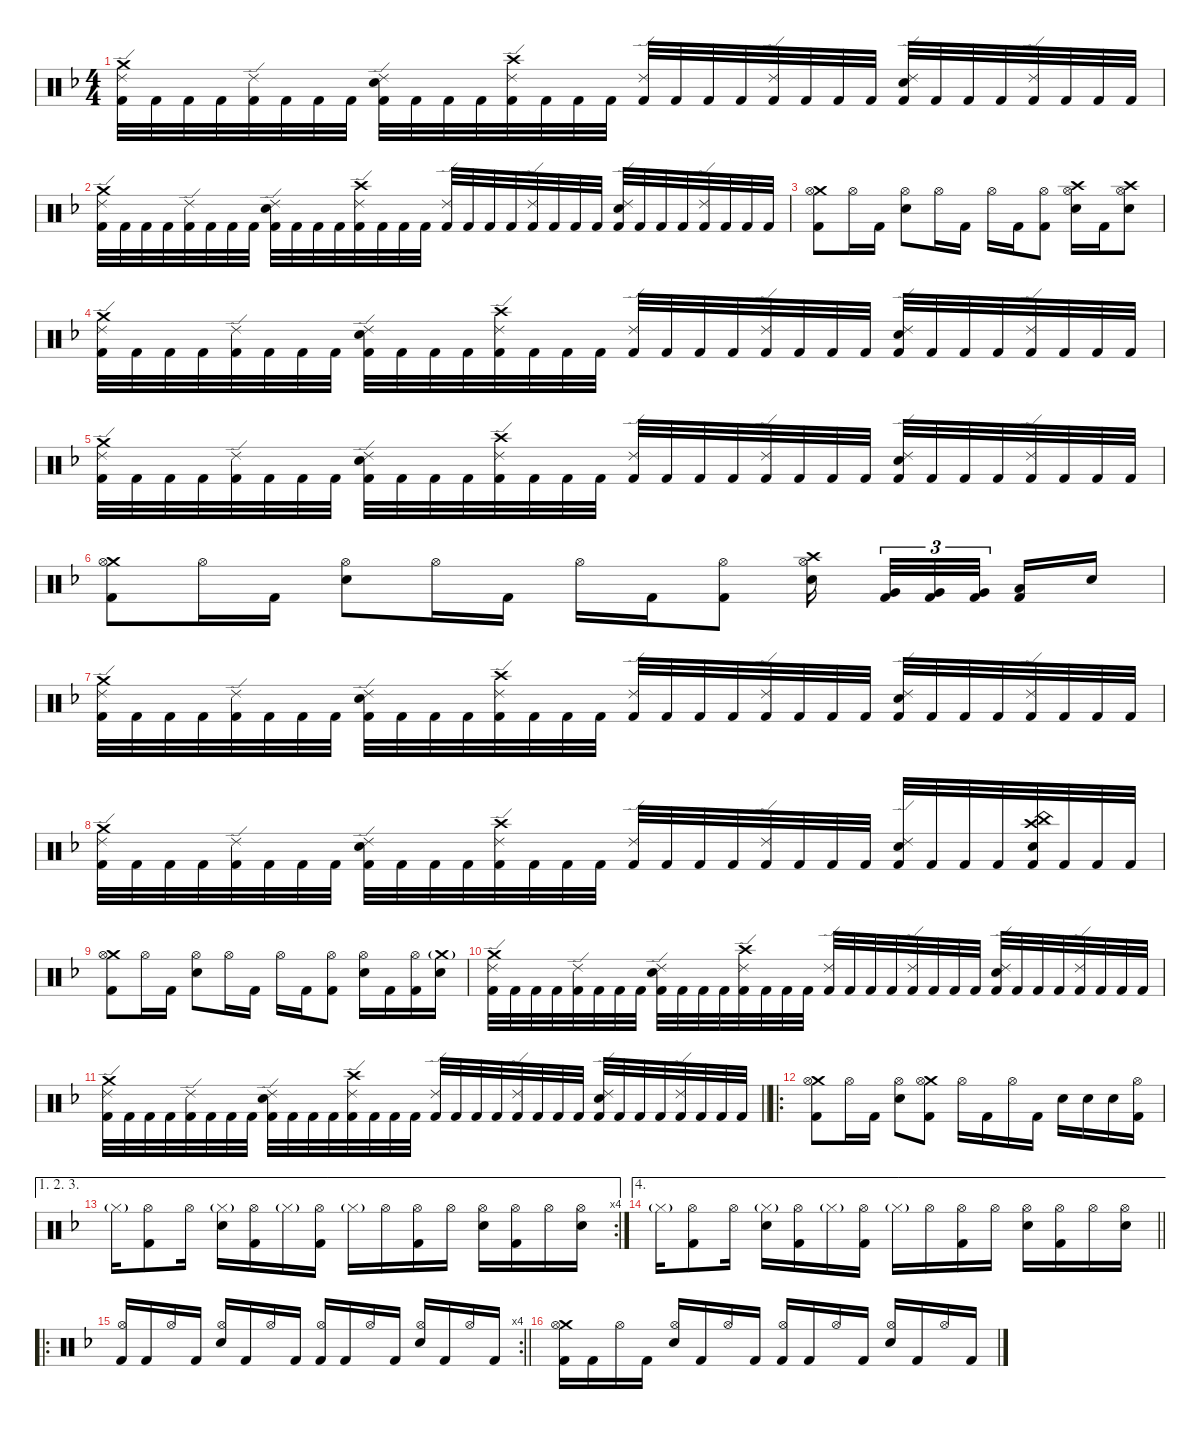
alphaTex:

\defaultSystemsLayout 4
\hideDynamics
\bracketExtendMode nobrackets
\singleTrackTrackNamePolicy hidden
\multiTrackTrackNamePolicy hidden
\otherSystemsTrackNameOrientation horizontal
\track ("Martin Lopez - Drums" "drm.") {defaultSystemsLayout 4 instrument percussion}
\staff {score}
\articulation defaults
\ts (4 4)
\tempo (84 hide)
\clef neutral
\ks dminor
("Crash medium (hit)"{acc forcenatural} "Ride (edge) 2"{acc forcenatural} "Kick (hit) 2"{acc forcenatural}).32{dy f beam Down} "Kick (hit) 2"{acc forcenatural}.32{beam Down} "Kick (hit) 2"{acc forcenatural}.32{beam Down} "Kick (hit) 2"{acc forcenatural}.32{beam Down} ("Ride (edge) 2"{acc forcenatural} "Kick (hit) 2"{acc forcenatural}).32{beam Down} "Kick (hit) 2"{acc forcenatural}.32{beam Down} "Kick (hit) 2"{acc forcenatural}.32{beam Down} "Kick (hit) 2"{acc forcenatural}.32{beam Down} ("Ride (edge) 2"{acc forcenatural} "Snare (hit) 2"{acc forcenatural} "Kick (hit) 2"{acc forcenatural}).32{beam Down} "Kick (hit) 2"{acc forcenatural}.32{beam Down} "Kick (hit) 2"{acc forcenatural}.32{beam Down} "Kick (hit) 2"{acc forcenatural}.32{beam Down} ("Crash high (hit)"{acc forcenatural} "Ride (edge) 2"{acc forcenatural} "Kick (hit) 2"{acc forcenatural}).32{beam Down} "Kick (hit) 2"{acc forcenatural}.32{beam Down} "Kick (hit) 2"{acc forcenatural}.32{beam Down} "Kick (hit) 2"{acc forcenatural}.32{beam Down} ("Ride (edge) 2"{acc forcenatural} "Kick (hit) 2"{acc forcenatural}).32{beam Up} "Kick (hit) 2"{acc forcenatural}.32{beam Up} "Kick (hit) 2"{acc forcenatural}.32{beam Up} "Kick (hit) 2"{acc forcenatural}.32{beam Up} ("Ride (edge) 2"{acc forcenatural} "Kick (hit) 2"{acc forcenatural}).32{beam Up} "Kick (hit) 2"{acc forcenatural}.32{beam Up} "Kick (hit) 2"{acc forcenatural}.32{beam Up} "Kick (hit) 2"{acc forcenatural}.32{beam Up} ("Ride (edge) 2"{acc forcenatural} "Snare (hit) 2"{acc forcenatural} "Kick (hit) 2"{acc forcenatural}).32{beam Up} "Kick (hit) 2"{acc forcenatural}.32{beam Up} "Kick (hit) 2"{acc forcenatural}.32{beam Up} "Kick (hit) 2"{acc forcenatural}.32{beam Up} ("Ride (edge) 2"{acc forcenatural} "Kick (hit) 2"{acc forcenatural}).32{beam Up} "Kick (hit) 2"{acc forcenatural}.32{beam Up} "Kick (hit) 2"{acc forcenatural}.32{beam Up} "Kick (hit) 2"{acc forcenatural}.32{beam Up} |
\tempo (85 hide)
("Crash medium (hit)"{acc forcenatural} "Ride (edge) 2"{acc forcenatural} "Kick (hit) 2"{acc forcenatural}).32{beam Down} "Kick (hit) 2"{acc forcenatural}.32{beam Down} "Kick (hit) 2"{acc forcenatural}.32{beam Down} "Kick (hit) 2"{acc forcenatural}.32{beam Down} ("Ride (edge) 2"{acc forcenatural} "Kick (hit) 2"{acc forcenatural}).32{beam Down} "Kick (hit) 2"{acc forcenatural}.32{beam Down} "Kick (hit) 2"{acc forcenatural}.32{beam Down} "Kick (hit) 2"{acc forcenatural}.32{beam Down} ("Ride (edge) 2"{acc forcenatural} "Snare (hit) 2"{acc forcenatural} "Kick (hit) 2"{acc forcenatural}).32{beam Down} "Kick (hit) 2"{acc forcenatural}.32{beam Down} "Kick (hit) 2"{acc forcenatural}.32{beam Down} "Kick (hit) 2"{acc forcenatural}.32{beam Down} ("Crash high (hit)"{acc forcenatural} "Ride (edge) 2"{acc forcenatural} "Kick (hit) 2"{acc forcenatural}).32{beam Down} "Kick (hit) 2"{acc forcenatural}.32{beam Down} "Kick (hit) 2"{acc forcenatural}.32{beam Down} "Kick (hit) 2"{acc forcenatural}.32{beam Down} ("Ride (edge) 2"{acc forcenatural} "Kick (hit) 2"{acc forcenatural}).32{beam Up} "Kick (hit) 2"{acc forcenatural}.32{beam Up} "Kick (hit) 2"{acc forcenatural}.32{beam Up} "Kick (hit) 2"{acc forcenatural}.32{beam Up} ("Ride (edge) 2"{acc forcenatural} "Kick (hit) 2"{acc forcenatural}).32{beam Up} "Kick (hit) 2"{acc forcenatural}.32{beam Up} "Kick (hit) 2"{acc forcenatural}.32{beam Up} "Kick (hit) 2"{acc forcenatural}.32{beam Up} ("Ride (edge) 2"{acc forcenatural} "Snare (hit) 2"{acc forcenatural} "Kick (hit) 2"{acc forcenatural}).32{beam Up} "Kick (hit) 2"{acc forcenatural}.32{beam Up} "Kick (hit) 2"{acc forcenatural}.32{beam Up} "Kick (hit) 2"{acc forcenatural}.32{beam Up} ("Ride (edge) 2"{acc forcenatural} "Kick (hit) 2"{acc forcenatural}).32{beam Up} "Kick (hit) 2"{acc forcenatural}.32{beam Up} "Kick (hit) 2"{acc forcenatural}.32{beam Up} "Kick (hit) 2"{acc forcenatural}.32{beam Up} |
\tempo (84 0.00625 hide)
("Crash medium (hit)"{acc forcenatural} "Hi-Hat (open)"{acc forcenatural} "Kick (hit) 2"{acc forcenatural}).8{beam Down} "Hi-Hat (open)"{acc forcenatural}.16{beam Down} "Kick (hit) 2"{acc forcenatural}.16{beam Down} ("Hi-Hat (open)"{acc forcenatural} "Snare (hit) 2"{acc forcenatural}).8{beam Down} "Hi-Hat (open)"{acc forcenatural}.16{beam Down} "Kick (hit) 2"{acc forcenatural}.16{beam Down} "Hi-Hat (open)"{acc forcenatural}.16{beam Down} "Kick (hit) 2"{acc forcenatural}.16{beam Down} ("Hi-Hat (open)"{acc forcenatural} "Kick (hit) 2"{acc forcenatural}).8{beam Down} ("Crash high (hit)"{acc forcenatural} "Hi-Hat (open)"{acc forcenatural} "Snare (hit) 2"{acc forcenatural}).16{beam Down} "Kick (hit) 2"{acc forcenatural}.16{beam Down} ("Crash high (hit)"{acc forcenatural} "Hi-Hat (open)"{acc forcenatural} "Snare (hit) 2"{acc forcenatural}).8{beam Down} |
\tempo (85 hide)
\tempo (84 0.99375 hide)
("Crash medium (hit)"{acc forcenatural} "Ride (edge) 2"{acc forcenatural} "Kick (hit) 2"{acc forcenatural}).32{beam Down} "Kick (hit) 2"{acc forcenatural}.32{beam Down} "Kick (hit) 2"{acc forcenatural}.32{beam Down} "Kick (hit) 2"{acc forcenatural}.32{beam Down} ("Ride (edge) 2"{acc forcenatural} "Kick (hit) 2"{acc forcenatural}).32{beam Down} "Kick (hit) 2"{acc forcenatural}.32{beam Down} "Kick (hit) 2"{acc forcenatural}.32{beam Down} "Kick (hit) 2"{acc forcenatural}.32{beam Down} ("Ride (edge) 2"{acc forcenatural} "Snare (hit) 2"{acc forcenatural} "Kick (hit) 2"{acc forcenatural}).32{beam Down} "Kick (hit) 2"{acc forcenatural}.32{beam Down} "Kick (hit) 2"{acc forcenatural}.32{beam Down} "Kick (hit) 2"{acc forcenatural}.32{beam Down} ("Crash high (hit)"{acc forcenatural} "Ride (edge) 2"{acc forcenatural} "Kick (hit) 2"{acc forcenatural}).32{beam Down} "Kick (hit) 2"{acc forcenatural}.32{beam Down} "Kick (hit) 2"{acc forcenatural}.32{beam Down} "Kick (hit) 2"{acc forcenatural}.32{beam Down} ("Ride (edge) 2"{acc forcenatural} "Kick (hit) 2"{acc forcenatural}).32{beam Up} "Kick (hit) 2"{acc forcenatural}.32{beam Up} "Kick (hit) 2"{acc forcenatural}.32{beam Up} "Kick (hit) 2"{acc forcenatural}.32{beam Up} ("Ride (edge) 2"{acc forcenatural} "Kick (hit) 2"{acc forcenatural}).32{beam Up} "Kick (hit) 2"{acc forcenatural}.32{beam Up} "Kick (hit) 2"{acc forcenatural}.32{beam Up} "Kick (hit) 2"{acc forcenatural}.32{beam Up} ("Ride (edge) 2"{acc forcenatural} "Snare (hit) 2"{acc forcenatural} "Kick (hit) 2"{acc forcenatural}).32{beam Up} "Kick (hit) 2"{acc forcenatural}.32{beam Up} "Kick (hit) 2"{acc forcenatural}.32{beam Up} "Kick (hit) 2"{acc forcenatural}.32{beam Up} ("Ride (edge) 2"{acc forcenatural} "Kick (hit) 2"{acc forcenatural}).32{beam Up} "Kick (hit) 2"{acc forcenatural}.32{beam Up} "Kick (hit) 2"{acc forcenatural}.32{beam Up} "Kick (hit) 2"{acc forcenatural}.32{beam Up} |
("Crash medium (hit)"{acc forcenatural} "Ride (edge) 2"{acc forcenatural} "Kick (hit) 2"{acc forcenatural}).32{beam Down} "Kick (hit) 2"{acc forcenatural}.32{beam Down} "Kick (hit) 2"{acc forcenatural}.32{beam Down} "Kick (hit) 2"{acc forcenatural}.32{beam Down} ("Ride (edge) 2"{acc forcenatural} "Kick (hit) 2"{acc forcenatural}).32{beam Down} "Kick (hit) 2"{acc forcenatural}.32{beam Down} "Kick (hit) 2"{acc forcenatural}.32{beam Down} "Kick (hit) 2"{acc forcenatural}.32{beam Down} ("Ride (edge) 2"{acc forcenatural} "Snare (hit) 2"{acc forcenatural} "Kick (hit) 2"{acc forcenatural}).32{beam Down} "Kick (hit) 2"{acc forcenatural}.32{beam Down} "Kick (hit) 2"{acc forcenatural}.32{beam Down} "Kick (hit) 2"{acc forcenatural}.32{beam Down} ("Crash high (hit)"{acc forcenatural} "Ride (edge) 2"{acc forcenatural} "Kick (hit) 2"{acc forcenatural}).32{beam Down} "Kick (hit) 2"{acc forcenatural}.32{beam Down} "Kick (hit) 2"{acc forcenatural}.32{beam Down} "Kick (hit) 2"{acc forcenatural}.32{beam Down} ("Ride (edge) 2"{acc forcenatural} "Kick (hit) 2"{acc forcenatural}).32{beam Up} "Kick (hit) 2"{acc forcenatural}.32{beam Up} "Kick (hit) 2"{acc forcenatural}.32{beam Up} "Kick (hit) 2"{acc forcenatural}.32{beam Up} ("Ride (edge) 2"{acc forcenatural} "Kick (hit) 2"{acc forcenatural}).32{beam Up} "Kick (hit) 2"{acc forcenatural}.32{beam Up} "Kick (hit) 2"{acc forcenatural}.32{beam Up} "Kick (hit) 2"{acc forcenatural}.32{beam Up} ("Ride (edge) 2"{acc forcenatural} "Snare (hit) 2"{acc forcenatural} "Kick (hit) 2"{acc forcenatural}).32{beam Up} "Kick (hit) 2"{acc forcenatural}.32{beam Up} "Kick (hit) 2"{acc forcenatural}.32{beam Up} "Kick (hit) 2"{acc forcenatural}.32{beam Up} ("Ride (edge) 2"{acc forcenatural} "Kick (hit) 2"{acc forcenatural}).32{beam Up} "Kick (hit) 2"{acc forcenatural}.32{beam Up} "Kick (hit) 2"{acc forcenatural}.32{beam Up} "Kick (hit) 2"{acc forcenatural}.32{beam Up} |
\tempo (85 0.00625 hide)
("Crash medium (hit)"{acc forcenatural} "Hi-Hat (open)"{acc forcenatural} "Kick (hit) 2"{acc forcenatural}).8{beam Down} "Hi-Hat (open)"{acc forcenatural}.16{beam Down} "Kick (hit) 2"{acc forcenatural}.16{beam Down} ("Hi-Hat (open)"{acc forcenatural} "Snare (hit) 2"{acc forcenatural}).8{beam Down} "Hi-Hat (open)"{acc forcenatural}.16{beam Down} "Kick (hit) 2"{acc forcenatural}.16{beam Down} "Hi-Hat (open)"{acc forcenatural}.16{beam Down} "Kick (hit) 2"{acc forcenatural}.16{beam Down} ("Hi-Hat (open)"{acc forcenatural} "Kick (hit) 2"{acc forcenatural}).8{beam Down} ("Crash high (hit)"{acc forcenatural} "Hi-Hat (open)"{acc forcenatural} "Snare (hit) 2"{acc forcenatural}).16{beam Down} ("Very Low Tom (hit)"{acc forcenatural} "Kick (hit) 2"{acc forcenatural}).32{tu (3 2) beam Up} ("Very Low Tom (hit)"{acc forcenatural} "Kick (hit) 2"{acc forcenatural}).32{tu (3 2) beam Up} ("Very Low Tom (hit)"{acc forcenatural} "Kick (hit) 2"{acc forcenatural}).32{tu (3 2) beam Up} ("Low Floor Tom (hit)"{acc forcenatural} "Kick (hit) 2"{acc forcenatural}).16{beam Up} "Snare (hit) 2"{acc forcenatural}.16{beam Up} |
\tempo (84 0.00625 hide)
("Crash medium (hit)"{acc forcenatural} "Ride (edge) 2"{acc forcenatural} "Kick (hit) 2"{acc forcenatural}).32{beam Down} "Kick (hit) 2"{acc forcenatural}.32{beam Down} "Kick (hit) 2"{acc forcenatural}.32{beam Down} "Kick (hit) 2"{acc forcenatural}.32{beam Down} ("Ride (edge) 2"{acc forcenatural} "Kick (hit) 2"{acc forcenatural}).32{beam Down} "Kick (hit) 2"{acc forcenatural}.32{beam Down} "Kick (hit) 2"{acc forcenatural}.32{beam Down} "Kick (hit) 2"{acc forcenatural}.32{beam Down} ("Ride (edge) 2"{acc forcenatural} "Snare (hit) 2"{acc forcenatural} "Kick (hit) 2"{acc forcenatural}).32{beam Down} "Kick (hit) 2"{acc forcenatural}.32{beam Down} "Kick (hit) 2"{acc forcenatural}.32{beam Down} "Kick (hit) 2"{acc forcenatural}.32{beam Down} ("Crash high (hit)"{acc forcenatural} "Ride (edge) 2"{acc forcenatural} "Kick (hit) 2"{acc forcenatural}).32{beam Down} "Kick (hit) 2"{acc forcenatural}.32{beam Down} "Kick (hit) 2"{acc forcenatural}.32{beam Down} "Kick (hit) 2"{acc forcenatural}.32{beam Down} ("Ride (edge) 2"{acc forcenatural} "Kick (hit) 2"{acc forcenatural}).32{beam Up} "Kick (hit) 2"{acc forcenatural}.32{beam Up} "Kick (hit) 2"{acc forcenatural}.32{beam Up} "Kick (hit) 2"{acc forcenatural}.32{beam Up} ("Ride (edge) 2"{acc forcenatural} "Kick (hit) 2"{acc forcenatural}).32{beam Up} "Kick (hit) 2"{acc forcenatural}.32{beam Up} "Kick (hit) 2"{acc forcenatural}.32{beam Up} "Kick (hit) 2"{acc forcenatural}.32{beam Up} ("Ride (edge) 2"{acc forcenatural} "Snare (hit) 2"{acc forcenatural} "Kick (hit) 2"{acc forcenatural}).32{beam Up} "Kick (hit) 2"{acc forcenatural}.32{beam Up} "Kick (hit) 2"{acc forcenatural}.32{beam Up} "Kick (hit) 2"{acc forcenatural}.32{beam Up} ("Ride (edge) 2"{acc forcenatural} "Kick (hit) 2"{acc forcenatural}).32{beam Up} "Kick (hit) 2"{acc forcenatural}.32{beam Up} "Kick (hit) 2"{acc forcenatural}.32{beam Up} "Kick (hit) 2"{acc forcenatural}.32{beam Up} |
\tempo (85 hide)
("Crash medium (hit)"{acc forcenatural} "Ride (edge) 2"{acc forcenatural} "Kick (hit) 2"{acc forcenatural}).32{beam Down} "Kick (hit) 2"{acc forcenatural}.32{beam Down} "Kick (hit) 2"{acc forcenatural}.32{beam Down} "Kick (hit) 2"{acc forcenatural}.32{beam Down} ("Ride (edge) 2"{acc forcenatural} "Kick (hit) 2"{acc forcenatural}).32{beam Down} "Kick (hit) 2"{acc forcenatural}.32{beam Down} "Kick (hit) 2"{acc forcenatural}.32{beam Down} "Kick (hit) 2"{acc forcenatural}.32{beam Down} ("Ride (edge) 2"{acc forcenatural} "Snare (hit) 2"{acc forcenatural} "Kick (hit) 2"{acc forcenatural}).32{beam Down} "Kick (hit) 2"{acc forcenatural}.32{beam Down} "Kick (hit) 2"{acc forcenatural}.32{beam Down} "Kick (hit) 2"{acc forcenatural}.32{beam Down} ("Crash high (hit)"{acc forcenatural} "Ride (edge) 2"{acc forcenatural} "Kick (hit) 2"{acc forcenatural}).32{beam Down} "Kick (hit) 2"{acc forcenatural}.32{beam Down} "Kick (hit) 2"{acc forcenatural}.32{beam Down} "Kick (hit) 2"{acc forcenatural}.32{beam Down} ("Ride (edge) 2"{acc forcenatural} "Kick (hit) 2"{acc forcenatural}).32{beam Up} "Kick (hit) 2"{acc forcenatural}.32{beam Up} "Kick (hit) 2"{acc forcenatural}.32{beam Up} "Kick (hit) 2"{acc forcenatural}.32{beam Up} ("Ride (edge) 2"{acc forcenatural} "Kick (hit) 2"{acc forcenatural}).32{beam Up} "Kick (hit) 2"{acc forcenatural}.32{beam Up} "Kick (hit) 2"{acc forcenatural}.32{beam Up} "Kick (hit) 2"{acc forcenatural}.32{beam Up} ("Ride (edge) 2"{acc forcenatural} "Snare (hit) 2"{acc forcenatural} "Kick (hit) 2"{acc forcenatural}).32{beam Up} "Kick (hit) 2"{acc forcenatural}.32{beam Up} "Kick (hit) 2"{acc forcenatural}.32{beam Up} "Kick (hit) 2"{acc forcenatural}.32{beam Up} ("Crash high (hit)"{acc forcenatural} "China (hit)"{acc forcenatural} "Snare (hit) 2"{acc forcenatural} "Kick (hit) 2"{acc forcenatural}).32{beam Up} "Kick (hit) 2"{acc forcenatural}.32{beam Up} "Kick (hit) 2"{acc forcenatural}.32{beam Up} "Kick (hit) 2"{acc forcenatural}.32{beam Up} |
\tempo (84 hide)
("Crash medium (hit)"{acc forcenatural} "Hi-Hat (open)"{acc forcenatural} "Kick (hit) 2"{acc forcenatural}).8{beam Down} "Hi-Hat (open)"{acc forcenatural}.16{beam Down} "Kick (hit) 2"{acc forcenatural}.16{beam Down} ("Hi-Hat (open)"{acc forcenatural} "Snare (hit) 2"{acc forcenatural}).8{beam Down} "Hi-Hat (open)"{acc forcenatural}.16{beam Down} "Kick (hit) 2"{acc forcenatural}.16{beam Down} "Hi-Hat (open)"{acc forcenatural}.16{beam Down} "Kick (hit) 2"{acc forcenatural}.16{beam Down} ("Hi-Hat (open)"{acc forcenatural} "Kick (hit) 2"{acc forcenatural}).8{beam Down} ("Hi-Hat (open)"{acc forcenatural} "Snare (hit) 2"{acc forcenatural}).16{beam Down} "Kick (hit) 2"{acc forcenatural}.16{beam Down} ("Hi-Hat (open)"{acc forcenatural} "Kick (hit) 2"{acc forcenatural}).16{beam Down} ("Crash medium (hit)"{g acc forcenatural} "Snare (hit) 2"{acc forcenatural}).16{beam Down} |
\tempo (85 hide)
("Crash medium (hit)"{acc forcenatural} "Ride (edge) 2"{acc forcenatural} "Kick (hit) 2"{acc forcenatural}).32{beam Down} "Kick (hit) 2"{acc forcenatural}.32{beam Down} "Kick (hit) 2"{acc forcenatural}.32{beam Down} "Kick (hit) 2"{acc forcenatural}.32{beam Down} ("Ride (edge) 2"{acc forcenatural} "Kick (hit) 2"{acc forcenatural}).32{beam Down} "Kick (hit) 2"{acc forcenatural}.32{beam Down} "Kick (hit) 2"{acc forcenatural}.32{beam Down} "Kick (hit) 2"{acc forcenatural}.32{beam Down} ("Ride (edge) 2"{acc forcenatural} "Snare (hit) 2"{acc forcenatural} "Kick (hit) 2"{acc forcenatural}).32{beam Down} "Kick (hit) 2"{acc forcenatural}.32{beam Down} "Kick (hit) 2"{acc forcenatural}.32{beam Down} "Kick (hit) 2"{acc forcenatural}.32{beam Down} ("Crash high (hit)"{acc forcenatural} "Ride (edge) 2"{acc forcenatural} "Kick (hit) 2"{acc forcenatural}).32{beam Down} "Kick (hit) 2"{acc forcenatural}.32{beam Down} "Kick (hit) 2"{acc forcenatural}.32{beam Down} "Kick (hit) 2"{acc forcenatural}.32{beam Down} ("Ride (edge) 2"{acc forcenatural} "Kick (hit) 2"{acc forcenatural}).32{beam Up} "Kick (hit) 2"{acc forcenatural}.32{beam Up} "Kick (hit) 2"{acc forcenatural}.32{beam Up} "Kick (hit) 2"{acc forcenatural}.32{beam Up} ("Ride (edge) 2"{acc forcenatural} "Kick (hit) 2"{acc forcenatural}).32{beam Up} "Kick (hit) 2"{acc forcenatural}.32{beam Up} "Kick (hit) 2"{acc forcenatural}.32{beam Up} "Kick (hit) 2"{acc forcenatural}.32{beam Up} ("Ride (edge) 2"{acc forcenatural} "Snare (hit) 2"{acc forcenatural} "Kick (hit) 2"{acc forcenatural}).32{beam Up} "Kick (hit) 2"{acc forcenatural}.32{beam Up} "Kick (hit) 2"{acc forcenatural}.32{beam Up} "Kick (hit) 2"{acc forcenatural}.32{beam Up} ("Ride (edge) 2"{acc forcenatural} "Kick (hit) 2"{acc forcenatural}).32{beam Up} "Kick (hit) 2"{acc forcenatural}.32{beam Up} "Kick (hit) 2"{acc forcenatural}.32{beam Up} "Kick (hit) 2"{acc forcenatural}.32{beam Up} |
\tempo (84 hide)
\barLineRight lightlight
("Crash medium (hit)"{acc forcenatural} "Ride (edge) 2"{acc forcenatural} "Kick (hit) 2"{acc forcenatural}).32{beam Down} "Kick (hit) 2"{acc forcenatural}.32{beam Down} "Kick (hit) 2"{acc forcenatural}.32{beam Down} "Kick (hit) 2"{acc forcenatural}.32{beam Down} ("Ride (edge) 2"{acc forcenatural} "Kick (hit) 2"{acc forcenatural}).32{beam Down} "Kick (hit) 2"{acc forcenatural}.32{beam Down} "Kick (hit) 2"{acc forcenatural}.32{beam Down} "Kick (hit) 2"{acc forcenatural}.32{beam Down} ("Ride (edge) 2"{acc forcenatural} "Snare (hit) 2"{acc forcenatural} "Kick (hit) 2"{acc forcenatural}).32{beam Down} "Kick (hit) 2"{acc forcenatural}.32{beam Down} "Kick (hit) 2"{acc forcenatural}.32{beam Down} "Kick (hit) 2"{acc forcenatural}.32{beam Down} ("Crash high (hit)"{acc forcenatural} "Ride (edge) 2"{acc forcenatural} "Kick (hit) 2"{acc forcenatural}).32{beam Down} "Kick (hit) 2"{acc forcenatural}.32{beam Down} "Kick (hit) 2"{acc forcenatural}.32{beam Down} "Kick (hit) 2"{acc forcenatural}.32{beam Down} ("Ride (edge) 2"{acc forcenatural} "Kick (hit) 2"{acc forcenatural}).32{beam Up} "Kick (hit) 2"{acc forcenatural}.32{beam Up} "Kick (hit) 2"{acc forcenatural}.32{beam Up} "Kick (hit) 2"{acc forcenatural}.32{beam Up} ("Ride (edge) 2"{acc forcenatural} "Kick (hit) 2"{acc forcenatural}).32{beam Up} "Kick (hit) 2"{acc forcenatural}.32{beam Up} "Kick (hit) 2"{acc forcenatural}.32{beam Up} "Kick (hit) 2"{acc forcenatural}.32{beam Up} ("Ride (edge) 2"{acc forcenatural} "Snare (hit) 2"{acc forcenatural} "Kick (hit) 2"{acc forcenatural}).32{beam Up} "Kick (hit) 2"{acc forcenatural}.32{beam Up} "Kick (hit) 2"{acc forcenatural}.32{beam Up} "Kick (hit) 2"{acc forcenatural}.32{beam Up} ("Ride (edge) 2"{acc forcenatural} "Kick (hit) 2"{acc forcenatural}).32{beam Up} "Kick (hit) 2"{acc forcenatural}.32{beam Up} "Kick (hit) 2"{acc forcenatural}.32{beam Up} "Kick (hit) 2"{acc forcenatural}.32{beam Up} |
\ro
\tempo (84 hide)
("Crash medium (hit)"{acc forcenatural} "Hi-Hat (open)"{acc forcenatural} "Kick (hit) 2"{acc forcenatural}).8{beam Down} "Hi-Hat (open)"{acc forcenatural}.16{beam Down} "Kick (hit) 2"{acc forcenatural}.16{beam Down} ("Hi-Hat (open)"{acc forcenatural} "Snare (hit) 2"{acc forcenatural}).8{beam Down} ("Crash medium (hit)"{acc forcenatural} "Hi-Hat (open)"{acc forcenatural} "Kick (hit) 2"{acc forcenatural}).8{beam Down} "Hi-Hat (open)"{acc forcenatural}.16{beam Down} "Kick (hit) 2"{acc forcenatural}.16{beam Down} "Hi-Hat (open)"{acc forcenatural}.16{beam Down} "Kick (hit) 2"{acc forcenatural}.16{beam Down} "Snare (hit) 2"{acc forcenatural}.16{beam Down} "Snare (hit) 2"{acc forcenatural}.16{beam Down} "Snare (hit) 2"{acc forcenatural}.16{beam Down} ("Hi-Hat (open)"{acc forcenatural} "Kick (hit) 2"{acc forcenatural}).16{beam Down} |
\ae (1 2 3)
\rc 4
\tempo (85 hide)
"Hi-Hat (closed)"{g acc forcenatural}.16{dy mf beam Down} ("Hi-Hat (open)"{acc forcenatural} "Kick (hit) 2"{acc forcenatural}).8{dy f beam Down} "Hi-Hat (open)"{acc forcenatural}.16{beam Down} ("Hi-Hat (closed)"{g acc forcenatural} "Snare (hit) 2"{acc forcenatural}).16{beam Down} ("Hi-Hat (open)"{acc forcenatural} "Kick (hit) 2"{acc forcenatural}).16{beam Down} "Hi-Hat (closed)"{g acc forcenatural}.16{dy mf beam Down} ("Hi-Hat (open)"{acc forcenatural} "Kick (hit) 2"{acc forcenatural}).16{dy f beam Down} "Hi-Hat (closed)"{g acc forcenatural}.16{dy mf beam Down} "Hi-Hat (open)"{acc forcenatural}.16{dy f beam Down} ("Hi-Hat (open)"{acc forcenatural} "Kick (hit) 2"{acc forcenatural}).16{beam Down} "Hi-Hat (open)"{acc forcenatural}.16{beam Down} ("Hi-Hat (open)"{acc forcenatural} "Snare (hit) 2"{acc forcenatural}).16{beam Down} ("Hi-Hat (open)"{acc forcenatural} "Kick (hit) 2"{acc forcenatural}).16{beam Down} "Hi-Hat (open)"{acc forcenatural}.16{beam Down} ("Hi-Hat (open)"{acc forcenatural} "Snare (hit) 2"{acc forcenatural}).16{beam Down} |
\ae 4
\tempo (84 0.00625 hide)
\barLineRight lightlight "Hi-Hat (closed)"{g acc forcenatural}.16{dy mf beam Down}
("Hi-Hat (open)"{acc forcenatural} "Kick (hit) 2"{acc forcenatural}).8{dy f beam Down} "Hi-Hat (open)"{acc forcenatural}.16{beam Down} ("Hi-Hat (closed)"{g acc forcenatural} "Snare (hit) 2"{acc forcenatural}).16{beam Down} ("Hi-Hat (open)"{acc forcenatural} "Kick (hit) 2"{acc forcenatural}).16{beam Down} "Hi-Hat (closed)"{g acc forcenatural}.16{dy mf beam Down} ("Hi-Hat (open)"{acc forcenatural} "Kick (hit) 2"{acc forcenatural}).16{dy f beam Down} "Hi-Hat (closed)"{g acc forcenatural}.16{dy mf beam Down} "Hi-Hat (open)"{acc forcenatural}.16{dy f beam Down} ("Hi-Hat (open)"{acc forcenatural} "Kick (hit) 2"{acc forcenatural}).16{beam Down} "Hi-Hat (open)"{acc forcenatural}.16{beam Down} ("Hi-Hat (open)"{acc forcenatural} "Snare (hit) 2"{acc forcenatural}).16{beam Down} ("Hi-Hat (open)"{acc forcenatural} "Kick (hit) 2"{acc forcenatural}).16{beam Down} "Hi-Hat (open)"{acc forcenatural}.16{beam Down} ("Hi-Hat (open)"{acc forcenatural} "Snare (hit) 2"{acc forcenatural}).16{beam Down} |
\ro
\rc 4
\tempo (85 hide)
\barLineRight lightlight
("Hi-Hat (open)"{acc forcenatural} "Kick (hit) 2"{acc forcenatural}).16{beam Up} "Kick (hit) 2"{acc forcenatural}.16{beam Up} "Hi-Hat (open)"{acc forcenatural}.16{beam Up} "Kick (hit) 2"{acc forcenatural}.16{beam Up} ("Hi-Hat (open)"{acc forcenatural} "Snare (hit) 2"{acc forcenatural}).16{beam Up} "Kick (hit) 2"{acc forcenatural}.16{beam Up} "Hi-Hat (open)"{acc forcenatural}.16{beam Up} "Kick (hit) 2"{acc forcenatural}.16{beam Up} ("Hi-Hat (open)"{acc forcenatural} "Kick (hit) 2"{acc forcenatural}).16{beam Up} "Kick (hit) 2"{acc forcenatural}.16{beam Up} "Hi-Hat (open)"{acc forcenatural}.16{beam Up} "Kick (hit) 2"{acc forcenatural}.16{beam Up} ("Hi-Hat (open)"{acc forcenatural} "Snare (hit) 2"{acc forcenatural}).16{beam Up} "Kick (hit) 2"{acc forcenatural}.16{beam Up} "Hi-Hat (open)"{acc forcenatural}.16{beam Up} "Kick (hit) 2"{acc forcenatural}.16{beam Up} |
\tempo (84 hide)
("Crash medium (hit)"{acc forcenatural} "Hi-Hat (open)"{acc forcenatural} "Kick (hit) 2"{acc forcenatural}).16{beam Down} "Kick (hit) 2"{acc forcenatural}.16{beam Down} "Hi-Hat (open)"{acc forcenatural}.16{beam Down} "Kick (hit) 2"{acc forcenatural}.16{beam Down} ("Hi-Hat (open)"{acc forcenatural} "Snare (hit) 2"{acc forcenatural}).16{beam Up} "Kick (hit) 2"{acc forcenatural}.16{beam Up} "Hi-Hat (open)"{acc forcenatural}.16{beam Up} "Kick (hit) 2"{acc forcenatural}.16{beam Up} ("Hi-Hat (open)"{acc forcenatural} "Kick (hit) 2"{acc forcenatural}).16{beam Up} "Kick (hit) 2"{acc forcenatural}.16{beam Up} "Hi-Hat (open)"{acc forcenatural}.16{beam Up} "Kick (hit) 2"{acc forcenatural}.16{beam Up} ("Hi-Hat (open)"{acc forcenatural} "Snare (hit) 2"{acc forcenatural}).16{beam Up} "Kick (hit) 2"{acc forcenatural}.16{beam Up} "Hi-Hat (open)"{acc forcenatural}.16{beam Up} "Kick (hit) 2"{acc forcenatural}.16{beam Up}
